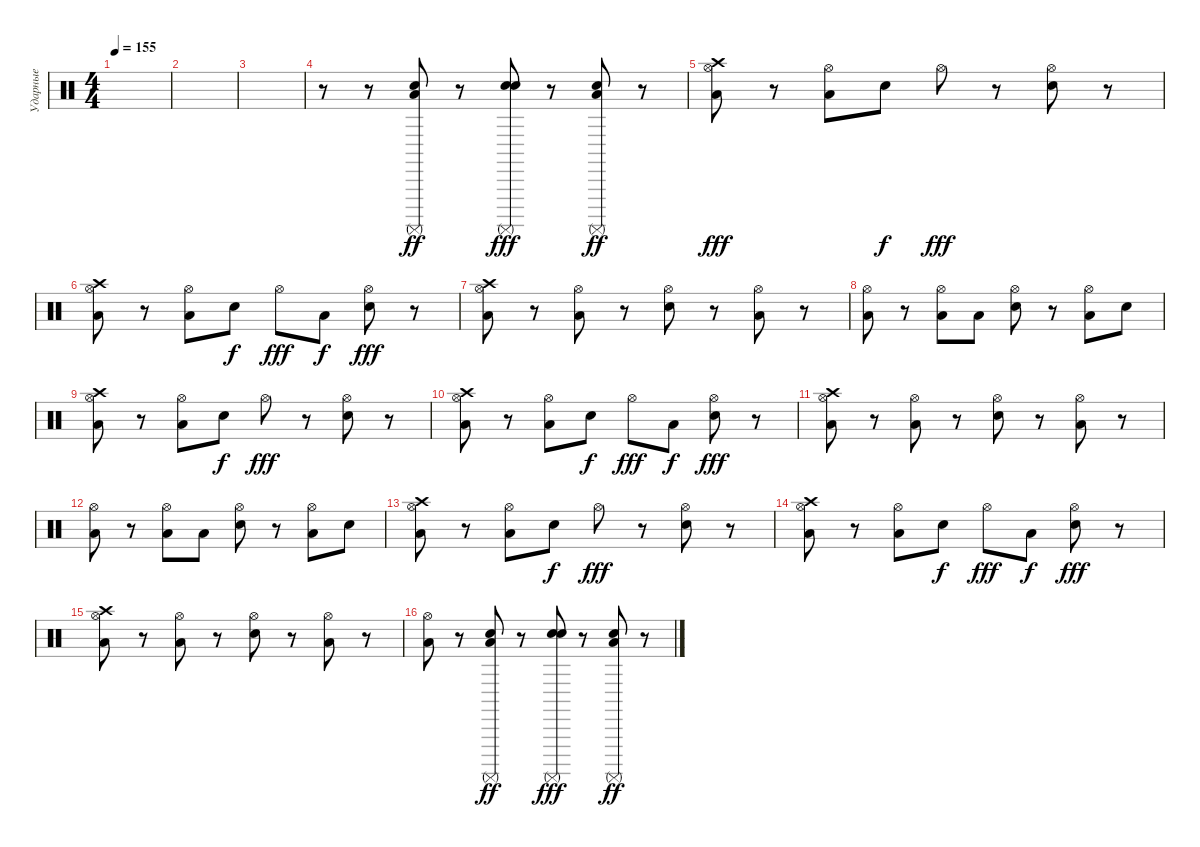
\track ("Ударные" "Ударные") {instrument percussion}
\staff {score}
\articulation defaults
\ts (4 4)
\tempo 155
\clef neutral
\ks c
|
|
|
r.8 r.8 ("Surdo (mute)" "Snare (hit) 2" "Low Tom (hit)").8{dy ff} r.8 ("Surdo (mute)" "Snare (hit) 2" "Snare (hit) 2").8{dy fff} r.8 ("Surdo (mute)" "Snare (hit) 2" "Low Tom (hit)").8{dy ff} r.8 |
("Hi-Hat (open)" "Crash high (hit)" "Low Floor Tom (hit)").8{dy fff} r.8 ("Hi-Hat (open)" "Low Tom (hit)").8 "Snare (hit) 2".8{dy f} "Hi-Hat (open)".8{dy fff} r.8 ("Hi-Hat (open)" "Snare (hit) 2").8 r.8 |
("Hi-Hat (open)" "Crash high (hit)" "Low Floor Tom (hit)").8 r.8 ("Hi-Hat (open)" "Low Tom (hit)").8 "Snare (hit) 2".8{dy f} "Hi-Hat (open)".8{dy fff} "Low Tom (hit)".8{dy f} ("Hi-Hat (open)" "Snare (hit) 2").8{dy fff} r.8 |
("Hi-Hat (open)" "Crash high (hit)" "Low Floor Tom (hit)").8 r.8 ("Hi-Hat (open)" "Low Tom (hit)").8 r.8 ("Hi-Hat (open)" "Snare (hit) 2").8 r.8 ("Hi-Hat (open)" "Low Tom (hit)").8 r.8 |
("Hi-Hat (open)" "Low Floor Tom (hit)").8 r.8 ("Hi-Hat (open)" "Low Tom (hit)").8 "Low Floor Tom (hit)".8 ("Hi-Hat (open)" "Snare (hit) 2").8 r.8 ("Hi-Hat (open)" "Low Tom (hit)").8 "Snare (hit) 2".8 |
("Hi-Hat (open)" "Crash high (hit)" "Low Floor Tom (hit)").8 r.8 ("Hi-Hat (open)" "Low Tom (hit)").8 "Snare (hit) 2".8{dy f} "Hi-Hat (open)".8{dy fff} r.8 ("Hi-Hat (open)" "Snare (hit) 2").8 r.8 |
("Hi-Hat (open)" "Crash high (hit)" "Low Floor Tom (hit)").8 r.8 ("Hi-Hat (open)" "Low Tom (hit)").8 "Snare (hit) 2".8{dy f} "Hi-Hat (open)".8{dy fff} "Low Tom (hit)".8{dy f} ("Hi-Hat (open)" "Snare (hit) 2").8{dy fff} r.8 |
("Hi-Hat (open)" "Crash high (hit)" "Low Floor Tom (hit)").8 r.8 ("Hi-Hat (open)" "Low Tom (hit)").8 r.8 ("Hi-Hat (open)" "Snare (hit) 2").8 r.8 ("Hi-Hat (open)" "Low Tom (hit)").8 r.8 |
("Hi-Hat (open)" "Low Floor Tom (hit)").8 r.8 ("Hi-Hat (open)" "Low Tom (hit)").8 "Low Floor Tom (hit)".8 ("Hi-Hat (open)" "Snare (hit) 2").8 r.8 ("Hi-Hat (open)" "Low Tom (hit)").8 "Snare (hit) 2".8 |
("Hi-Hat (open)" "Crash high (hit)" "Low Floor Tom (hit)").8 r.8 ("Hi-Hat (open)" "Low Tom (hit)").8 "Snare (hit) 2".8{dy f} "Hi-Hat (open)".8{dy fff} r.8 ("Hi-Hat (open)" "Snare (hit) 2").8 r.8 |
("Hi-Hat (open)" "Crash high (hit)" "Low Floor Tom (hit)").8 r.8 ("Hi-Hat (open)" "Low Tom (hit)").8 "Snare (hit) 2".8{dy f} "Hi-Hat (open)".8{dy fff} "Low Tom (hit)".8{dy f} ("Hi-Hat (open)" "Snare (hit) 2").8{dy fff} r.8 |
("Hi-Hat (open)" "Crash high (hit)" "Low Floor Tom (hit)").8 r.8 ("Hi-Hat (open)" "Low Tom (hit)").8 r.8 ("Hi-Hat (open)" "Snare (hit) 2").8 r.8 ("Hi-Hat (open)" "Low Tom (hit)").8 r.8 |
("Hi-Hat (open)" "Low Floor Tom (hit)").8 r.8 ("Surdo (mute)" "Snare (hit) 2" "Low Tom (hit)").8{dy ff} r.8 ("Surdo (mute)" "Snare (hit) 2" "Snare (hit) 2").8{dy fff} r.8 ("Surdo (mute)" "Snare (hit) 2" "Low Tom (hit)").8{dy ff} r.8
